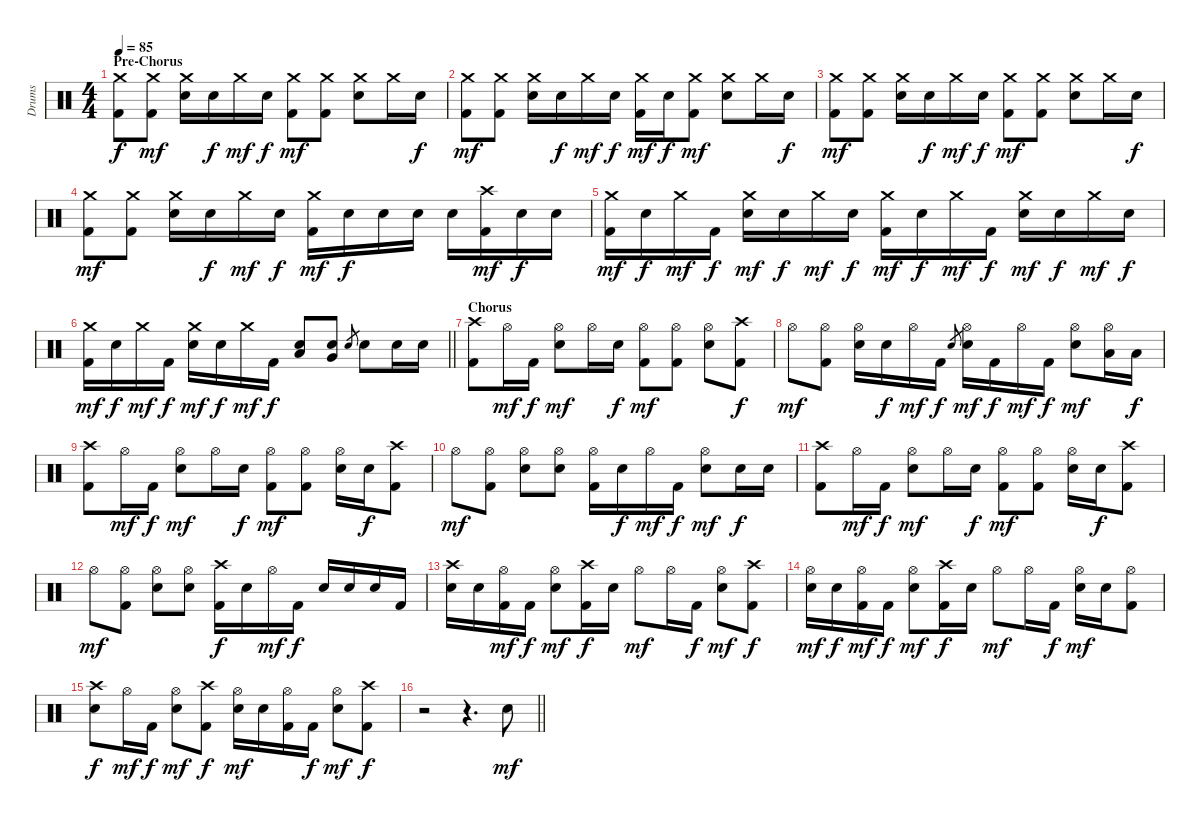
\track ("Drums" "Drums") {instrument percussion}
\staff {score}
\articulation defaults
\ts (4 4)
\section ("" "Pre-Chorus")
\tempo 85
\clef neutral
\ks c
("Crash medium (hit)" "Kick (hit) 2").8{dy f} ("Crash medium (hit)" "Kick (hit) 2").8{dy mf} ("Crash medium (hit)" "Electric Snare (hit)").16 "Electric Snare (hit)".16{dy f} "Crash medium (hit)".16{dy mf} "Electric Snare (hit)".16{dy f} ("Crash medium (hit)" "Kick (hit) 2").8{dy mf} ("Crash medium (hit)" "Kick (hit) 2").8 ("Crash medium (hit)" "Electric Snare (hit)").8 "Crash medium (hit)".16 "Electric Snare (hit)".16{dy f} |
("Crash medium (hit)" "Kick (hit) 2").8{dy mf} ("Crash medium (hit)" "Kick (hit) 2").8 ("Crash medium (hit)" "Electric Snare (hit)").16 "Electric Snare (hit)".16{dy f} "Crash medium (hit)".16{dy mf} "Electric Snare (hit)".16{dy f} ("Crash medium (hit)" "Kick (hit) 2").16{dy mf} "Electric Snare (hit)".16{dy f} ("Crash medium (hit)" "Kick (hit) 2").8{dy mf} ("Crash medium (hit)" "Electric Snare (hit)").8 "Crash medium (hit)".16 "Electric Snare (hit)".16{dy f} |
("Crash medium (hit)" "Kick (hit) 2").8{dy mf} ("Crash medium (hit)" "Kick (hit) 2").8 ("Crash medium (hit)" "Electric Snare (hit)").16 "Electric Snare (hit)".16{dy f} "Crash medium (hit)".16{dy mf} "Electric Snare (hit)".16{dy f} ("Crash medium (hit)" "Kick (hit) 2").8{dy mf} ("Crash medium (hit)" "Kick (hit) 2").8 ("Crash medium (hit)" "Electric Snare (hit)").8 "Crash medium (hit)".16 "Electric Snare (hit)".16{dy f} |
("Crash medium (hit)" "Kick (hit) 2").8{dy mf} ("Crash medium (hit)" "Kick (hit) 2").8 ("Crash medium (hit)" "Electric Snare (hit)").16 "Electric Snare (hit)".16{dy f} "Crash medium (hit)".16{dy mf} "Electric Snare (hit)".16{dy f} ("Crash medium (hit)" "Kick (hit) 2").16{dy mf} "Electric Snare (hit)".16{dy f} "Electric Snare (hit)".16 "Electric Snare (hit)".16 "Electric Snare (hit)".16 ("Crash high (hit)" "Kick (hit) 2").16{dy mf} "Electric Snare (hit)".16{dy f} "Electric Snare (hit)".16 |
("Crash medium (hit)" "Kick (hit) 2").16{dy mf} "Electric Snare (hit)".16{dy f} "Crash medium (hit)".16{dy mf} "Kick (hit) 2".16{dy f} ("Crash medium (hit)" "Electric Snare (hit)").16{dy mf} "Electric Snare (hit)".16{dy f} "Crash medium (hit)".16{dy mf} "Electric Snare (hit)".16{dy f} ("Crash medium (hit)" "Kick (hit) 2").16{dy mf} "Electric Snare (hit)".16{dy f} "Crash medium (hit)".16{dy mf} "Kick (hit) 2".16{dy f} ("Crash medium (hit)" "Electric Snare (hit)").16{dy mf} "Electric Snare (hit)".16{dy f} "Crash medium (hit)".16{dy mf} "Electric Snare (hit)".16{dy f} |
\barLineRight lightlight
("Crash medium (hit)" "Kick (hit) 2").16{dy mf} "Electric Snare (hit)".16{dy f} "Crash medium (hit)".16{dy mf} "Kick (hit) 2".16{dy f} ("Crash medium (hit)" "Electric Snare (hit)").16{dy mf} "Electric Snare (hit)".16{dy f} "Crash medium (hit)".16{dy mf} "Kick (hit) 2".16{dy f} ("Low Tom (hit)" "Electric Snare (hit)").8 ("Very Low Tom (hit)" "Electric Snare (hit)").8 "Electric Snare (hit)".8{gr} "Electric Snare (hit)".8 "Electric Snare (hit)".16 "Electric Snare (hit)".16 |
\section ("" "Chorus")
("Crash high (hit)" "Kick (hit) 2").8 "Hi-Hat (open)".16{dy mf} "Kick (hit) 2".16{dy f} ("Hi-Hat (open)" "Electric Snare (hit)").8{dy mf} "Hi-Hat (open)".16 "Electric Snare (hit)".16{dy f} ("Hi-Hat (open)" "Kick (hit) 2").8{dy mf} ("Hi-Hat (open)" "Kick (hit) 2").8 ("Hi-Hat (open)" "Electric Snare (hit)").8 ("Crash high (hit)" "Kick (hit) 2").8{dy f} |
"Hi-Hat (open)".8{dy mf} ("Hi-Hat (open)" "Kick (hit) 2").8 ("Hi-Hat (open)" "Electric Snare (hit)").16 "Electric Snare (hit)".16{dy f} "Hi-Hat (open)".16{dy mf} "Kick (hit) 2".16{dy f} "Electric Snare (hit)".8{gr} ("Hi-Hat (open)" "Electric Snare (hit)").16{dy mf} "Kick (hit) 2".16{dy f} "Hi-Hat (open)".16{dy mf} "Kick (hit) 2".16{dy f} ("Hi-Hat (open)" "Electric Snare (hit)").8{dy mf} ("Hi-Hat (open)" "Low Tom (hit)").16 "Low Tom (hit)".16{dy f} |
("Crash high (hit)" "Kick (hit) 2").8 "Hi-Hat (open)".16{dy mf} "Kick (hit) 2".16{dy f} ("Hi-Hat (open)" "Electric Snare (hit)").8{dy mf} "Hi-Hat (open)".16 "Electric Snare (hit)".16{dy f} ("Hi-Hat (open)" "Kick (hit) 2").8{dy mf} ("Hi-Hat (open)" "Kick (hit) 2").8 ("Hi-Hat (open)" "Electric Snare (hit)").16 "Electric Snare (hit)".16{dy f} ("Crash high (hit)" "Kick (hit) 2").8 |
"Hi-Hat (open)".8{dy mf} ("Hi-Hat (open)" "Kick (hit) 2").8 ("Hi-Hat (open)" "Electric Snare (hit)").8 ("Hi-Hat (open)" "Electric Snare (hit)").8 ("Hi-Hat (open)" "Kick (hit) 2").16 "Electric Snare (hit)".16{dy f} "Hi-Hat (open)".16{dy mf} "Kick (hit) 2".16{dy f} ("Hi-Hat (open)" "Electric Snare (hit)").8{dy mf} "Electric Snare (hit)".16{dy f} "Electric Snare (hit)".16 |
("Crash high (hit)" "Kick (hit) 2").8 "Hi-Hat (open)".16{dy mf} "Kick (hit) 2".16{dy f} ("Hi-Hat (open)" "Electric Snare (hit)").8{dy mf} "Hi-Hat (open)".16 "Electric Snare (hit)".16{dy f} ("Hi-Hat (open)" "Kick (hit) 2").8{dy mf} ("Hi-Hat (open)" "Kick (hit) 2").8 ("Hi-Hat (open)" "Electric Snare (hit)").16 "Electric Snare (hit)".16{dy f} ("Crash high (hit)" "Kick (hit) 2").8 |
"Hi-Hat (open)".8{dy mf} ("Hi-Hat (open)" "Kick (hit) 2").8 ("Hi-Hat (open)" "Electric Snare (hit)").8 ("Hi-Hat (open)" "Electric Snare (hit)").8 ("Crash high (hit)" "Kick (hit) 2").16{dy f} "Electric Snare (hit)".16 "Hi-Hat (open)".16{dy mf} "Kick (hit) 2".16{dy f} "Electric Snare (hit)".16 "Electric Snare (hit)".16 "Electric Snare (hit)".16 "Kick (hit) 2".16 |
("Crash high (hit)" "Electric Snare (hit)").16 "Electric Snare (hit)".16 ("Hi-Hat (open)" "Kick (hit) 2").16{dy mf} "Kick (hit) 2".16{dy f} ("Hi-Hat (open)" "Electric Snare (hit)").8{dy mf} ("Crash high (hit)" "Kick (hit) 2").16{dy f} "Electric Snare (hit)".16 "Hi-Hat (open)".8{dy mf} "Hi-Hat (open)".16 "Kick (hit) 2".16{dy f} ("Hi-Hat (open)" "Electric Snare (hit)").8{dy mf} ("Crash high (hit)" "Kick (hit) 2").8{dy f} |
("Hi-Hat (open)" "Electric Snare (hit)").16{dy mf} "Electric Snare (hit)".16{dy f} ("Hi-Hat (open)" "Kick (hit) 2").16{dy mf} "Kick (hit) 2".16{dy f} ("Hi-Hat (open)" "Electric Snare (hit)").8{dy mf} ("Crash high (hit)" "Kick (hit) 2").16{dy f} "Electric Snare (hit)".16 "Hi-Hat (open)".8{dy mf} "Hi-Hat (open)".16 "Kick (hit) 2".16{dy f} ("Hi-Hat (open)" "Electric Snare (hit)").16{dy mf} "Electric Snare (hit)".16 ("Hi-Hat (open)" "Kick (hit) 2").8 |
("Crash high (hit)" "Electric Snare (hit)").8{dy f} "Hi-Hat (open)".16{dy mf} "Kick (hit) 2".16{dy f} ("Hi-Hat (open)" "Electric Snare (hit)").8{dy mf} ("Crash high (hit)" "Kick (hit) 2").8{dy f} ("Hi-Hat (open)" "Electric Snare (hit)").16{dy mf} "Electric Snare (hit)".16 ("Hi-Hat (open)" "Kick (hit) 2").16 "Kick (hit) 2".16{dy f} ("Hi-Hat (open)" "Electric Snare (hit)").8{dy mf} ("Crash high (hit)" "Kick (hit) 2").8{dy f} |
\barLineRight lightlight
r.2 r.4{d} "Electric Snare (hit)".8{dy mf}
